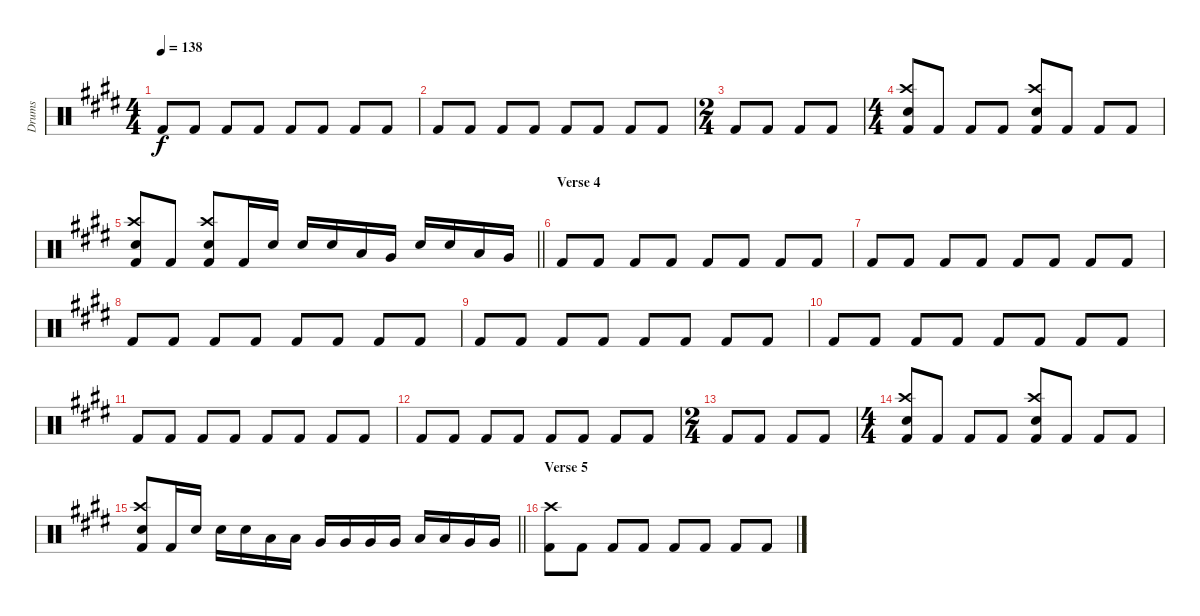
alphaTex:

\track ("Drums" "Drums") {instrument percussion}
\staff {score}
\articulation defaults
\ts (4 4)
\tempo 138
\clef neutral
\ks c#minor "Kick (hit) 2".8{dy f} "Kick (hit) 2".8 "Kick (hit) 2".8 "Kick (hit) 2".8 "Kick (hit) 2".8 "Kick (hit) 2".8 "Kick (hit) 2".8 "Kick (hit) 2".8
|
"Kick (hit) 2".8 "Kick (hit) 2".8 "Kick (hit) 2".8 "Kick (hit) 2".8 "Kick (hit) 2".8 "Kick (hit) 2".8 "Kick (hit) 2".8 "Kick (hit) 2".8 |
\ts (2 4)
"Kick (hit) 2".8 "Kick (hit) 2".8 "Kick (hit) 2".8 "Kick (hit) 2".8 |
\ts (4 4)
("Crash high (hit)" "Snare (hit) 2" "Kick (hit) 2").8 "Kick (hit) 2".8 "Kick (hit) 2".8 "Kick (hit) 2".8 ("Crash high (hit)" "Snare (hit) 2" "Kick (hit) 2").8 "Kick (hit) 2".8 "Kick (hit) 2".8 "Kick (hit) 2".8 |
\barLineRight lightlight
("Crash high (hit)" "Snare (hit) 2" "Kick (hit) 2").8 "Kick (hit) 2".8 ("Crash high (hit)" "Snare (hit) 2" "Kick (hit) 2").8 "Kick (hit) 2".16 "Snare (hit) 2".16 "Snare (hit) 2".16 "Snare (hit) 2".16 "Low Tom (hit)".16 "Very Low Tom (hit)".16 "Snare (hit) 2".16 "Snare (hit) 2".16 "Low Tom (hit)".16 "Very Low Tom (hit)".16 |
\section ("" "Verse 4")
"Kick (hit) 2".8 "Kick (hit) 2".8 "Kick (hit) 2".8 "Kick (hit) 2".8 "Kick (hit) 2".8 "Kick (hit) 2".8 "Kick (hit) 2".8 "Kick (hit) 2".8 |
"Kick (hit) 2".8 "Kick (hit) 2".8 "Kick (hit) 2".8 "Kick (hit) 2".8 "Kick (hit) 2".8 "Kick (hit) 2".8 "Kick (hit) 2".8 "Kick (hit) 2".8 |
"Kick (hit) 2".8 "Kick (hit) 2".8 "Kick (hit) 2".8 "Kick (hit) 2".8 "Kick (hit) 2".8 "Kick (hit) 2".8 "Kick (hit) 2".8 "Kick (hit) 2".8 |
"Kick (hit) 2".8 "Kick (hit) 2".8 "Kick (hit) 2".8 "Kick (hit) 2".8 "Kick (hit) 2".8 "Kick (hit) 2".8 "Kick (hit) 2".8 "Kick (hit) 2".8 |
"Kick (hit) 2".8 "Kick (hit) 2".8 "Kick (hit) 2".8 "Kick (hit) 2".8 "Kick (hit) 2".8 "Kick (hit) 2".8 "Kick (hit) 2".8 "Kick (hit) 2".8 |
"Kick (hit) 2".8 "Kick (hit) 2".8 "Kick (hit) 2".8 "Kick (hit) 2".8 "Kick (hit) 2".8 "Kick (hit) 2".8 "Kick (hit) 2".8 "Kick (hit) 2".8 |
"Kick (hit) 2".8 "Kick (hit) 2".8 "Kick (hit) 2".8 "Kick (hit) 2".8 "Kick (hit) 2".8 "Kick (hit) 2".8 "Kick (hit) 2".8 "Kick (hit) 2".8 |
\ts (2 4)
"Kick (hit) 2".8 "Kick (hit) 2".8 "Kick (hit) 2".8 "Kick (hit) 2".8 |
\ts (4 4)
("Crash high (hit)" "Snare (hit) 2" "Kick (hit) 2").8 "Kick (hit) 2".8 "Kick (hit) 2".8 "Kick (hit) 2".8 ("Crash high (hit)" "Snare (hit) 2" "Kick (hit) 2").8 "Kick (hit) 2".8 "Kick (hit) 2".8 "Kick (hit) 2".8 |
\barLineRight lightlight
("Crash high (hit)" "Snare (hit) 2" "Kick (hit) 2").8 "Kick (hit) 2".16 "Snare (hit) 2".16 "Snare (hit) 2".16 "Snare (hit) 2".16 "Low Tom (hit)".16 "Low Tom (hit)".16 "Very Low Tom (hit)".16 "Very Low Tom (hit)".16 "Very Low Tom (hit)".16 "Very Low Tom (hit)".16 "Low Tom (hit)".16 "Low Tom (hit)".16 "Very Low Tom (hit)".16 "Very Low Tom (hit)".16 |
\section ("" "Verse 5")
("Crash high (hit)" "Kick (hit) 2").8 "Kick (hit) 2".8 "Kick (hit) 2".8 "Kick (hit) 2".8 "Kick (hit) 2".8 "Kick (hit) 2".8 "Kick (hit) 2".8 "Kick (hit) 2".8
